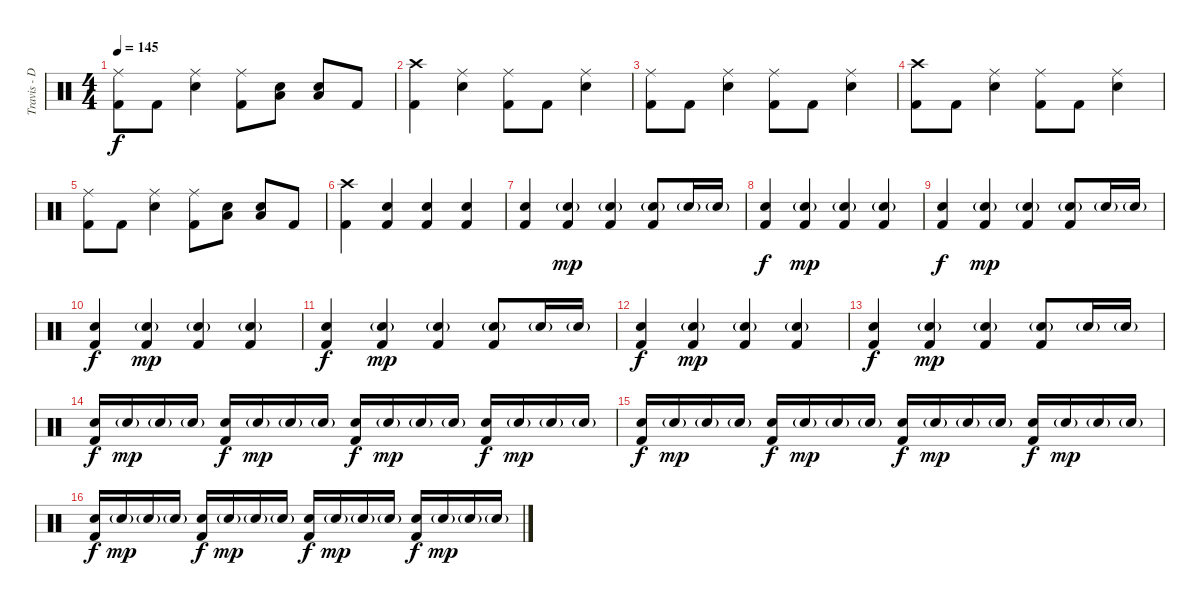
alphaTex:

\track ("Travis - Drums" "Travis - D") {instrument percussion}
\staff {score}
\articulation defaults
\ts (4 4)
\tempo 145
\clef neutral
\ks c
("Ride (middle)" "Kick (hit) 2").8{dy f} "Kick (hit) 2".8 ("Ride (middle)" "Snare (hit) 2").4 ("Ride (middle)" "Kick (hit) 2").8 ("Snare (hit) 2" "Low Floor Tom (hit)").8 ("Snare (hit) 2" "Low Floor Tom (hit)").8 "Kick (hit) 2".8 |
("Crash high (hit)" "Kick (hit) 2").4 ("Ride (middle)" "Snare (hit) 2").4 ("Ride (middle)" "Kick (hit) 2").8 "Kick (hit) 2".8 ("Ride (middle)" "Snare (hit) 2").4 |
("Ride (middle)" "Kick (hit) 2").8 "Kick (hit) 2".8 ("Ride (middle)" "Snare (hit) 2").4 ("Ride (middle)" "Kick (hit) 2").8 "Kick (hit) 2".8 ("Ride (middle)" "Snare (hit) 2").4 |
("Crash high (hit)" "Kick (hit) 2").8 "Kick (hit) 2".8 ("Ride (middle)" "Snare (hit) 2").4 ("Ride (middle)" "Kick (hit) 2").8 "Kick (hit) 2".8 ("Ride (middle)" "Snare (hit) 2").4 |
("Ride (middle)" "Kick (hit) 2").8 "Kick (hit) 2".8 ("Ride (middle)" "Snare (hit) 2").4 ("Ride (middle)" "Kick (hit) 2").8 ("Snare (hit) 2" "Low Floor Tom (hit)").8 ("Snare (hit) 2" "Low Floor Tom (hit)").8 "Kick (hit) 2".8 |
("Crash high (hit)" "Kick (hit) 2").4 ("Snare (hit) 2" "Kick (hit) 2").4 ("Snare (hit) 2" "Kick (hit) 2").4 ("Snare (hit) 2" "Kick (hit) 2").4 |
("Snare (hit) 2" "Kick (hit) 2").4 ("Snare (hit) 2"{g} "Kick (hit) 2").4{dy mp} ("Snare (hit) 2"{g} "Kick (hit) 2").4 ("Snare (hit) 2"{g} "Kick (hit) 2").8 "Snare (hit) 2"{g}.16 "Snare (hit) 2"{g}.16 |
("Snare (hit) 2" "Kick (hit) 2").4{dy f} ("Snare (hit) 2"{g} "Kick (hit) 2").4{dy mp} ("Snare (hit) 2"{g} "Kick (hit) 2").4 ("Snare (hit) 2"{g} "Kick (hit) 2").4 |
("Snare (hit) 2" "Kick (hit) 2").4{dy f} ("Snare (hit) 2"{g} "Kick (hit) 2").4{dy mp} ("Snare (hit) 2"{g} "Kick (hit) 2").4 ("Snare (hit) 2"{g} "Kick (hit) 2").8 "Snare (hit) 2"{g}.16 "Snare (hit) 2"{g}.16 |
("Snare (hit) 2" "Kick (hit) 2").4{dy f} ("Snare (hit) 2"{g} "Kick (hit) 2").4{dy mp} ("Snare (hit) 2"{g} "Kick (hit) 2").4 ("Snare (hit) 2"{g} "Kick (hit) 2").4 |
("Snare (hit) 2" "Kick (hit) 2").4{dy f} ("Snare (hit) 2"{g} "Kick (hit) 2").4{dy mp} ("Snare (hit) 2"{g} "Kick (hit) 2").4 ("Snare (hit) 2"{g} "Kick (hit) 2").8 "Snare (hit) 2"{g}.16 "Snare (hit) 2"{g}.16 |
("Snare (hit) 2" "Kick (hit) 2").4{dy f} ("Snare (hit) 2"{g} "Kick (hit) 2").4{dy mp} ("Snare (hit) 2"{g} "Kick (hit) 2").4 ("Snare (hit) 2"{g} "Kick (hit) 2").4 |
("Snare (hit) 2" "Kick (hit) 2").4{dy f} ("Snare (hit) 2"{g} "Kick (hit) 2").4{dy mp} ("Snare (hit) 2"{g} "Kick (hit) 2").4 ("Snare (hit) 2"{g} "Kick (hit) 2").8 "Snare (hit) 2"{g}.16 "Snare (hit) 2"{g}.16 |
("Snare (hit) 2" "Kick (hit) 2").16{dy f} "Snare (hit) 2"{g}.16{dy mp} "Snare (hit) 2"{g}.16 "Snare (hit) 2"{g}.16 ("Snare (hit) 2" "Kick (hit) 2").16{dy f} "Snare (hit) 2"{g}.16{dy mp} "Snare (hit) 2"{g}.16 "Snare (hit) 2"{g}.16 ("Snare (hit) 2" "Kick (hit) 2").16{dy f} "Snare (hit) 2"{g}.16{dy mp} "Snare (hit) 2"{g}.16 "Snare (hit) 2"{g}.16 ("Snare (hit) 2" "Kick (hit) 2").16{dy f} "Snare (hit) 2"{g}.16{dy mp} "Snare (hit) 2"{g}.16 "Snare (hit) 2"{g}.16 |
("Snare (hit) 2" "Kick (hit) 2").16{dy f} "Snare (hit) 2"{g}.16{dy mp} "Snare (hit) 2"{g}.16 "Snare (hit) 2"{g}.16 ("Snare (hit) 2" "Kick (hit) 2").16{dy f} "Snare (hit) 2"{g}.16{dy mp} "Snare (hit) 2"{g}.16 "Snare (hit) 2"{g}.16 ("Snare (hit) 2" "Kick (hit) 2").16{dy f} "Snare (hit) 2"{g}.16{dy mp} "Snare (hit) 2"{g}.16 "Snare (hit) 2"{g}.16 ("Snare (hit) 2" "Kick (hit) 2").16{dy f} "Snare (hit) 2"{g}.16{dy mp} "Snare (hit) 2"{g}.16 "Snare (hit) 2"{g}.16 |
("Snare (hit) 2" "Kick (hit) 2").16{dy f} "Snare (hit) 2"{g}.16{dy mp} "Snare (hit) 2"{g}.16 "Snare (hit) 2"{g}.16 ("Snare (hit) 2" "Kick (hit) 2").16{dy f} "Snare (hit) 2"{g}.16{dy mp} "Snare (hit) 2"{g}.16 "Snare (hit) 2"{g}.16 ("Snare (hit) 2" "Kick (hit) 2").16{dy f} "Snare (hit) 2"{g}.16{dy mp} "Snare (hit) 2"{g}.16 "Snare (hit) 2"{g}.16 ("Snare (hit) 2" "Kick (hit) 2").16{dy f} "Snare (hit) 2"{g}.16{dy mp} "Snare (hit) 2"{g}.16 "Snare (hit) 2"{g}.16
